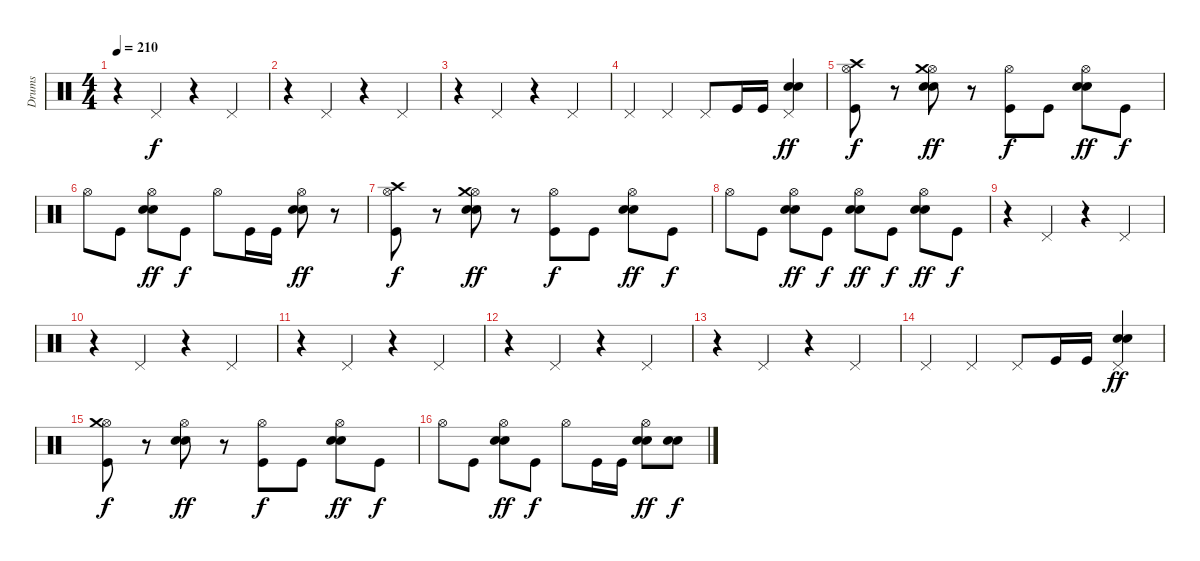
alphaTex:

\track ("Drums" "Drums") {instrument percussion}
\staff {score}
\articulation defaults
\ts (4 4)
\tempo 210
\clef neutral
\ks c
r.4{dy f} "Pedal Hi-Hat (hit)".4 r.4 "Pedal Hi-Hat (hit)".4 |
r.4 "Pedal Hi-Hat (hit)".4 r.4 "Pedal Hi-Hat (hit)".4 |
r.4 "Pedal Hi-Hat (hit)".4 r.4 "Pedal Hi-Hat (hit)".4 |
"Pedal Hi-Hat (hit)".4 "Pedal Hi-Hat (hit)".4 "Pedal Hi-Hat (hit)".8 "Kick (hit)".16 "Kick (hit)".16 ("Electric Snare (hit)" "Electric Snare (hit)" "Pedal Hi-Hat (hit)").4{dy ff} |
("Kick (hit)" "Hi-Hat (open)" "Crash high (hit)").8{dy f} r.8 ("Electric Snare (hit)" "Electric Snare (hit)" "Hi-Hat (open)" "Crash medium (hit)").8{dy ff} r.8 ("Kick (hit)" "Hi-Hat (open)").8{dy f} "Kick (hit)".8 ("Electric Snare (hit)" "Electric Snare (hit)" "Hi-Hat (open)").8{dy ff} "Kick (hit)".8{dy f} |
"Hi-Hat (open)".8 "Kick (hit)".8 ("Electric Snare (hit)" "Electric Snare (hit)" "Hi-Hat (open)").8{dy ff} "Kick (hit)".8{dy f} "Hi-Hat (open)".8 "Kick (hit)".16 "Kick (hit)".16 ("Electric Snare (hit)" "Electric Snare (hit)" "Hi-Hat (open)").8{dy ff} r.8 |
("Kick (hit)" "Hi-Hat (open)" "Crash high (hit)").8{dy f} r.8 ("Electric Snare (hit)" "Electric Snare (hit)" "Hi-Hat (open)" "Crash medium (hit)").8{dy ff} r.8 ("Kick (hit)" "Hi-Hat (open)").8{dy f} "Kick (hit)".8 ("Electric Snare (hit)" "Electric Snare (hit)" "Hi-Hat (open)").8{dy ff} "Kick (hit)".8{dy f} |
"Hi-Hat (open)".8 "Kick (hit)".8 ("Electric Snare (hit)" "Electric Snare (hit)" "Hi-Hat (open)").8{dy ff} "Kick (hit)".8{dy f} ("Electric Snare (hit)" "Electric Snare (hit)" "Hi-Hat (open)").8{dy ff} "Kick (hit)".8{dy f} ("Electric Snare (hit)" "Electric Snare (hit)" "Hi-Hat (open)").8{dy ff} "Kick (hit)".8{dy f} |
r.4 "Pedal Hi-Hat (hit)".4 r.4 "Pedal Hi-Hat (hit)".4 |
r.4 "Pedal Hi-Hat (hit)".4 r.4 "Pedal Hi-Hat (hit)".4 |
r.4 "Pedal Hi-Hat (hit)".4 r.4 "Pedal Hi-Hat (hit)".4 |
r.4 "Pedal Hi-Hat (hit)".4 r.4 "Pedal Hi-Hat (hit)".4 |
r.4 "Pedal Hi-Hat (hit)".4 r.4 "Pedal Hi-Hat (hit)".4 |
"Pedal Hi-Hat (hit)".4 "Pedal Hi-Hat (hit)".4 "Pedal Hi-Hat (hit)".8 "Kick (hit)".16 "Kick (hit)".16 ("Electric Snare (hit)" "Electric Snare (hit)" "Pedal Hi-Hat (hit)").4{dy ff} |
("Kick (hit)" "Hi-Hat (open)" "Crash medium (hit)").8{dy f} r.8 ("Electric Snare (hit)" "Electric Snare (hit)" "Hi-Hat (open)").8{dy ff} r.8 ("Kick (hit)" "Hi-Hat (open)").8{dy f} "Kick (hit)".8 ("Electric Snare (hit)" "Electric Snare (hit)" "Hi-Hat (open)").8{dy ff} "Kick (hit)".8{dy f} |
"Hi-Hat (open)".8 "Kick (hit)".8 ("Electric Snare (hit)" "Electric Snare (hit)" "Hi-Hat (open)").8{dy ff} "Kick (hit)".8{dy f} "Hi-Hat (open)".8 "Kick (hit)".16 "Kick (hit)".16 ("Electric Snare (hit)" "Electric Snare (hit)" "Hi-Hat (open)").8{dy ff} ("Electric Snare (hit)" "Electric Snare (hit)").8{dy f}
